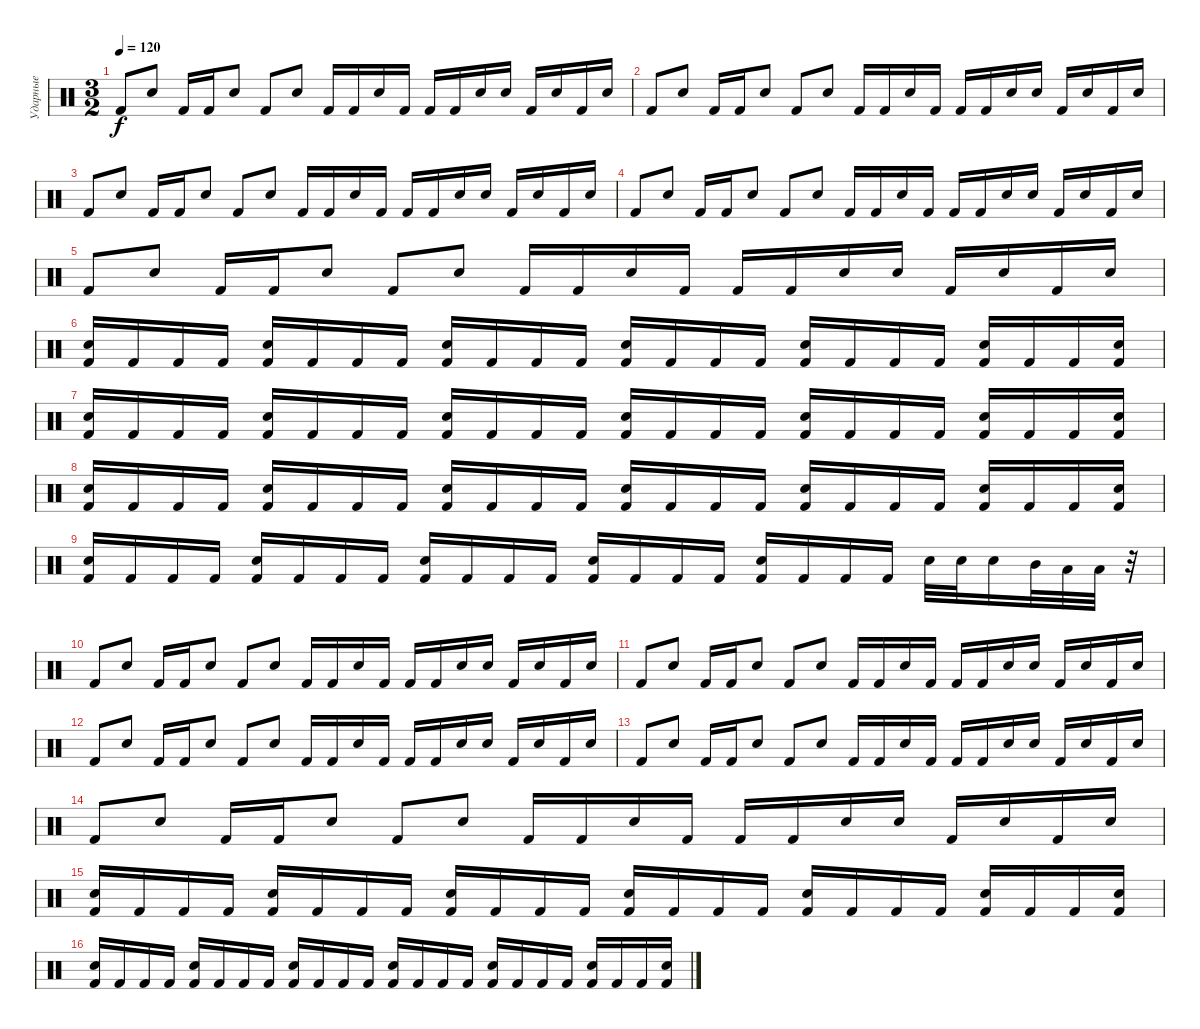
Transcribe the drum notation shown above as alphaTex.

\track ("Ударные" "Ударные") {instrument percussion}
\staff {score}
\articulation defaults
\ts (3 2)
\tempo 120
\clef neutral
\ks c "Kick (hit) 2".8{dy f} "Snare (hit) 2".8 "Kick (hit) 2".16 "Kick (hit) 2".16 "Snare (hit) 2".8 "Kick (hit) 2".8 "Snare (hit) 2".8 "Kick (hit) 2".16 "Kick (hit) 2".16 "Snare (hit) 2".16 "Kick (hit) 2".16 "Kick (hit) 2".16 "Kick (hit) 2".16 "Snare (hit) 2".16 "Snare (hit) 2".16 "Kick (hit) 2".16 "Snare (hit) 2".16 "Kick (hit) 2".16 "Snare (hit) 2".16
|
"Kick (hit) 2".8 "Snare (hit) 2".8 "Kick (hit) 2".16 "Kick (hit) 2".16 "Snare (hit) 2".8 "Kick (hit) 2".8 "Snare (hit) 2".8 "Kick (hit) 2".16 "Kick (hit) 2".16 "Snare (hit) 2".16 "Kick (hit) 2".16 "Kick (hit) 2".16 "Kick (hit) 2".16 "Snare (hit) 2".16 "Snare (hit) 2".16 "Kick (hit) 2".16 "Snare (hit) 2".16 "Kick (hit) 2".16 "Snare (hit) 2".16 |
"Kick (hit) 2".8 "Snare (hit) 2".8 "Kick (hit) 2".16 "Kick (hit) 2".16 "Snare (hit) 2".8 "Kick (hit) 2".8 "Snare (hit) 2".8 "Kick (hit) 2".16 "Kick (hit) 2".16 "Snare (hit) 2".16 "Kick (hit) 2".16 "Kick (hit) 2".16 "Kick (hit) 2".16 "Snare (hit) 2".16 "Snare (hit) 2".16 "Kick (hit) 2".16 "Snare (hit) 2".16 "Kick (hit) 2".16 "Snare (hit) 2".16 |
"Kick (hit) 2".8 "Snare (hit) 2".8 "Kick (hit) 2".16 "Kick (hit) 2".16 "Snare (hit) 2".8 "Kick (hit) 2".8 "Snare (hit) 2".8 "Kick (hit) 2".16 "Kick (hit) 2".16 "Snare (hit) 2".16 "Kick (hit) 2".16 "Kick (hit) 2".16 "Kick (hit) 2".16 "Snare (hit) 2".16 "Snare (hit) 2".16 "Kick (hit) 2".16 "Snare (hit) 2".16 "Kick (hit) 2".16 "Snare (hit) 2".16 |
"Kick (hit) 2".8 "Snare (hit) 2".8 "Kick (hit) 2".16 "Kick (hit) 2".16 "Snare (hit) 2".8 "Kick (hit) 2".8 "Snare (hit) 2".8 "Kick (hit) 2".16 "Kick (hit) 2".16 "Snare (hit) 2".16 "Kick (hit) 2".16 "Kick (hit) 2".16 "Kick (hit) 2".16 "Snare (hit) 2".16 "Snare (hit) 2".16 "Kick (hit) 2".16 "Snare (hit) 2".16 "Kick (hit) 2".16 "Snare (hit) 2".16 |
("Snare (hit) 2" "Kick (hit) 2").16 "Kick (hit) 2".16 "Kick (hit) 2".16 "Kick (hit) 2".16 ("Snare (hit) 2" "Kick (hit) 2").16 "Kick (hit) 2".16 "Kick (hit) 2".16 "Kick (hit) 2".16 ("Snare (hit) 2" "Kick (hit) 2").16 "Kick (hit) 2".16 "Kick (hit) 2".16 "Kick (hit) 2".16 ("Snare (hit) 2" "Kick (hit) 2").16 "Kick (hit) 2".16 "Kick (hit) 2".16 "Kick (hit) 2".16 ("Snare (hit) 2" "Kick (hit) 2").16 "Kick (hit) 2".16 "Kick (hit) 2".16 "Kick (hit) 2".16 ("Snare (hit) 2" "Kick (hit) 2").16 "Kick (hit) 2".16 "Kick (hit) 2".16 ("Snare (hit) 2" "Kick (hit) 2").16 |
("Snare (hit) 2" "Kick (hit) 2").16 "Kick (hit) 2".16 "Kick (hit) 2".16 "Kick (hit) 2".16 ("Snare (hit) 2" "Kick (hit) 2").16 "Kick (hit) 2".16 "Kick (hit) 2".16 "Kick (hit) 2".16 ("Snare (hit) 2" "Kick (hit) 2").16 "Kick (hit) 2".16 "Kick (hit) 2".16 "Kick (hit) 2".16 ("Snare (hit) 2" "Kick (hit) 2").16 "Kick (hit) 2".16 "Kick (hit) 2".16 "Kick (hit) 2".16 ("Snare (hit) 2" "Kick (hit) 2").16 "Kick (hit) 2".16 "Kick (hit) 2".16 "Kick (hit) 2".16 ("Snare (hit) 2" "Kick (hit) 2").16 "Kick (hit) 2".16 "Kick (hit) 2".16 ("Snare (hit) 2" "Kick (hit) 2").16 |
("Snare (hit) 2" "Kick (hit) 2").16 "Kick (hit) 2".16 "Kick (hit) 2".16 "Kick (hit) 2".16 ("Snare (hit) 2" "Kick (hit) 2").16 "Kick (hit) 2".16 "Kick (hit) 2".16 "Kick (hit) 2".16 ("Snare (hit) 2" "Kick (hit) 2").16 "Kick (hit) 2".16 "Kick (hit) 2".16 "Kick (hit) 2".16 ("Snare (hit) 2" "Kick (hit) 2").16 "Kick (hit) 2".16 "Kick (hit) 2".16 "Kick (hit) 2".16 ("Snare (hit) 2" "Kick (hit) 2").16 "Kick (hit) 2".16 "Kick (hit) 2".16 "Kick (hit) 2".16 ("Snare (hit) 2" "Kick (hit) 2").16 "Kick (hit) 2".16 "Kick (hit) 2".16 ("Snare (hit) 2" "Kick (hit) 2").16 |
("Snare (hit) 2" "Kick (hit) 2").16 "Kick (hit) 2".16 "Kick (hit) 2".16 "Kick (hit) 2".16 ("Snare (hit) 2" "Kick (hit) 2").16 "Kick (hit) 2".16 "Kick (hit) 2".16 "Kick (hit) 2".16 ("Snare (hit) 2" "Kick (hit) 2").16 "Kick (hit) 2".16 "Kick (hit) 2".16 "Kick (hit) 2".16 ("Snare (hit) 2" "Kick (hit) 2").16 "Kick (hit) 2".16 "Kick (hit) 2".16 "Kick (hit) 2".16 ("Snare (hit) 2" "Kick (hit) 2").16 "Kick (hit) 2".16 "Kick (hit) 2".16 "Kick (hit) 2".16 "Snare (hit) 2".32 "Snare (hit) 2".32 "Snare (hit) 2".16 "Mid Tom (hit)".32 "Low Tom (hit)".32 "Low Tom (hit)".32 r.32 |
"Kick (hit) 2".8 "Snare (hit) 2".8 "Kick (hit) 2".16 "Kick (hit) 2".16 "Snare (hit) 2".8 "Kick (hit) 2".8 "Snare (hit) 2".8 "Kick (hit) 2".16 "Kick (hit) 2".16 "Snare (hit) 2".16 "Kick (hit) 2".16 "Kick (hit) 2".16 "Kick (hit) 2".16 "Snare (hit) 2".16 "Snare (hit) 2".16 "Kick (hit) 2".16 "Snare (hit) 2".16 "Kick (hit) 2".16 "Snare (hit) 2".16 |
"Kick (hit) 2".8 "Snare (hit) 2".8 "Kick (hit) 2".16 "Kick (hit) 2".16 "Snare (hit) 2".8 "Kick (hit) 2".8 "Snare (hit) 2".8 "Kick (hit) 2".16 "Kick (hit) 2".16 "Snare (hit) 2".16 "Kick (hit) 2".16 "Kick (hit) 2".16 "Kick (hit) 2".16 "Snare (hit) 2".16 "Snare (hit) 2".16 "Kick (hit) 2".16 "Snare (hit) 2".16 "Kick (hit) 2".16 "Snare (hit) 2".16 |
"Kick (hit) 2".8 "Snare (hit) 2".8 "Kick (hit) 2".16 "Kick (hit) 2".16 "Snare (hit) 2".8 "Kick (hit) 2".8 "Snare (hit) 2".8 "Kick (hit) 2".16 "Kick (hit) 2".16 "Snare (hit) 2".16 "Kick (hit) 2".16 "Kick (hit) 2".16 "Kick (hit) 2".16 "Snare (hit) 2".16 "Snare (hit) 2".16 "Kick (hit) 2".16 "Snare (hit) 2".16 "Kick (hit) 2".16 "Snare (hit) 2".16 |
"Kick (hit) 2".8 "Snare (hit) 2".8 "Kick (hit) 2".16 "Kick (hit) 2".16 "Snare (hit) 2".8 "Kick (hit) 2".8 "Snare (hit) 2".8 "Kick (hit) 2".16 "Kick (hit) 2".16 "Snare (hit) 2".16 "Kick (hit) 2".16 "Kick (hit) 2".16 "Kick (hit) 2".16 "Snare (hit) 2".16 "Snare (hit) 2".16 "Kick (hit) 2".16 "Snare (hit) 2".16 "Kick (hit) 2".16 "Snare (hit) 2".16 |
"Kick (hit) 2".8 "Snare (hit) 2".8 "Kick (hit) 2".16 "Kick (hit) 2".16 "Snare (hit) 2".8 "Kick (hit) 2".8 "Snare (hit) 2".8 "Kick (hit) 2".16 "Kick (hit) 2".16 "Snare (hit) 2".16 "Kick (hit) 2".16 "Kick (hit) 2".16 "Kick (hit) 2".16 "Snare (hit) 2".16 "Snare (hit) 2".16 "Kick (hit) 2".16 "Snare (hit) 2".16 "Kick (hit) 2".16 "Snare (hit) 2".16 |
("Snare (hit) 2" "Kick (hit) 2").16 "Kick (hit) 2".16 "Kick (hit) 2".16 "Kick (hit) 2".16 ("Snare (hit) 2" "Kick (hit) 2").16 "Kick (hit) 2".16 "Kick (hit) 2".16 "Kick (hit) 2".16 ("Snare (hit) 2" "Kick (hit) 2").16 "Kick (hit) 2".16 "Kick (hit) 2".16 "Kick (hit) 2".16 ("Snare (hit) 2" "Kick (hit) 2").16 "Kick (hit) 2".16 "Kick (hit) 2".16 "Kick (hit) 2".16 ("Snare (hit) 2" "Kick (hit) 2").16 "Kick (hit) 2".16 "Kick (hit) 2".16 "Kick (hit) 2".16 ("Snare (hit) 2" "Kick (hit) 2").16 "Kick (hit) 2".16 "Kick (hit) 2".16 ("Snare (hit) 2" "Kick (hit) 2").16 |
("Snare (hit) 2" "Kick (hit) 2").16 "Kick (hit) 2".16 "Kick (hit) 2".16 "Kick (hit) 2".16 ("Snare (hit) 2" "Kick (hit) 2").16 "Kick (hit) 2".16 "Kick (hit) 2".16 "Kick (hit) 2".16 ("Snare (hit) 2" "Kick (hit) 2").16 "Kick (hit) 2".16 "Kick (hit) 2".16 "Kick (hit) 2".16 ("Snare (hit) 2" "Kick (hit) 2").16 "Kick (hit) 2".16 "Kick (hit) 2".16 "Kick (hit) 2".16 ("Snare (hit) 2" "Kick (hit) 2").16 "Kick (hit) 2".16 "Kick (hit) 2".16 "Kick (hit) 2".16 ("Snare (hit) 2" "Kick (hit) 2").16 "Kick (hit) 2".16 "Kick (hit) 2".16 ("Snare (hit) 2" "Kick (hit) 2").16
